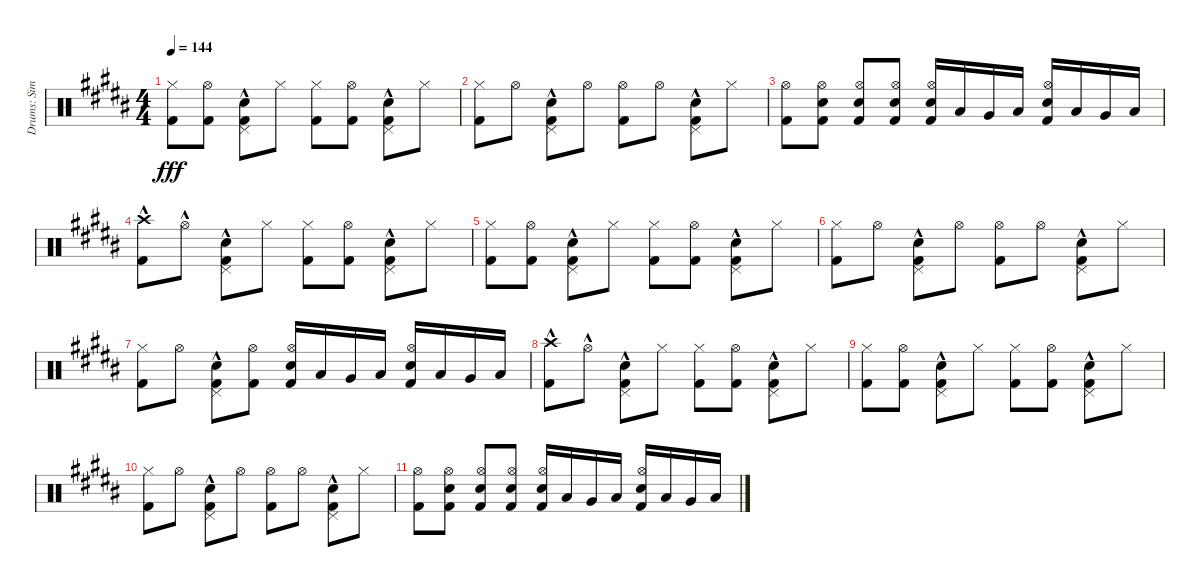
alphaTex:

\track ("Drums: Simon" "Drums: Sim") {instrument percussion}
\staff {score}
\articulation defaults
\ts (4 4)
\tempo 144
\clef neutral
\ks b
("Hi-Hat (closed)" "Kick (hit) 2").8{dy fff} ("Hi-Hat (open)" "Kick (hit) 2").8 ("Pedal Hi-Hat (hit)"{hac} "Snare (hit) 2"{hac} "Kick (hit) 2"{hac}).8 "Hi-Hat (closed)".8 ("Hi-Hat (closed)" "Kick (hit) 2").8 ("Hi-Hat (open)" "Kick (hit) 2").8 ("Pedal Hi-Hat (hit)"{hac} "Snare (hit) 2"{hac} "Kick (hit) 2"{hac}).8 "Hi-Hat (closed)".8 |
("Hi-Hat (closed)" "Kick (hit) 2").8 "Hi-Hat (open)".8 ("Pedal Hi-Hat (hit)"{hac} "Snare (hit) 2"{hac} "Kick (hit) 2"{hac}).8 "Hi-Hat (open)".8 ("Hi-Hat (open)" "Kick (hit) 2").8 "Hi-Hat (open)".8 ("Pedal Hi-Hat (hit)"{hac} "Snare (hit) 2"{hac} "Kick (hit) 2"{hac}).8 "Hi-Hat (closed)".8 |
("Hi-Hat (open)" "Kick (hit) 2").8 ("Hi-Hat (open)" "Snare (hit) 2" "Kick (hit) 2").8 ("Hi-Hat (open)" "Snare (hit) 2" "Kick (hit) 2").8 ("Hi-Hat (open)" "Snare (hit) 2" "Kick (hit) 2").8 ("Hi-Hat (open)" "Snare (hit) 2" "Kick (hit) 2").16 "Low Tom (hit)".16 "Very Low Tom (hit)".16 "Low Floor Tom (hit)".16 ("Hi-Hat (open)" "Snare (hit) 2" "Kick (hit) 2").16 "Low Tom (hit)".16 "Very Low Tom (hit)".16 "Low Floor Tom (hit)".16 |
("Crash high (hit)"{hac} "Kick (hit) 2"{hac}).8 "Hi-Hat (open)"{hac}.8 ("Pedal Hi-Hat (hit)"{hac} "Snare (hit) 2"{hac} "Kick (hit) 2"{hac}).8 "Hi-Hat (closed)".8 ("Hi-Hat (closed)" "Kick (hit) 2").8 ("Hi-Hat (open)" "Kick (hit) 2").8 ("Pedal Hi-Hat (hit)"{hac} "Snare (hit) 2"{hac} "Kick (hit) 2"{hac}).8 "Hi-Hat (closed)".8 |
("Hi-Hat (closed)" "Kick (hit) 2").8 ("Hi-Hat (open)" "Kick (hit) 2").8 ("Pedal Hi-Hat (hit)"{hac} "Snare (hit) 2"{hac} "Kick (hit) 2"{hac}).8 "Hi-Hat (closed)".8 ("Hi-Hat (closed)" "Kick (hit) 2").8 ("Hi-Hat (open)" "Kick (hit) 2").8 ("Pedal Hi-Hat (hit)"{hac} "Snare (hit) 2"{hac} "Kick (hit) 2"{hac}).8 "Hi-Hat (closed)".8 |
("Hi-Hat (closed)" "Kick (hit) 2").8 "Hi-Hat (open)".8 ("Pedal Hi-Hat (hit)"{hac} "Snare (hit) 2"{hac} "Kick (hit) 2"{hac}).8 "Hi-Hat (open)".8 ("Hi-Hat (open)" "Kick (hit) 2").8 "Hi-Hat (open)".8 ("Pedal Hi-Hat (hit)"{hac} "Snare (hit) 2"{hac} "Kick (hit) 2"{hac}).8 "Hi-Hat (closed)".8 |
("Hi-Hat (closed)" "Kick (hit) 2").8 "Hi-Hat (open)".8 ("Pedal Hi-Hat (hit)"{hac} "Snare (hit) 2"{hac} "Kick (hit) 2"{hac}).8 ("Hi-Hat (open)" "Kick (hit) 2").8 ("Hi-Hat (open)" "Snare (hit) 2" "Kick (hit) 2").16 "Low Tom (hit)".16 "Very Low Tom (hit)".16 "Low Floor Tom (hit)".16 ("Hi-Hat (open)" "Snare (hit) 2" "Kick (hit) 2").16 "Low Tom (hit)".16 "Very Low Tom (hit)".16 "Low Floor Tom (hit)".16 |
("Crash high (hit)"{hac} "Kick (hit) 2"{hac}).8 "Hi-Hat (open)"{hac}.8 ("Pedal Hi-Hat (hit)"{hac} "Snare (hit) 2"{hac} "Kick (hit) 2"{hac}).8 "Hi-Hat (closed)".8 ("Hi-Hat (closed)" "Kick (hit) 2").8 ("Hi-Hat (open)" "Kick (hit) 2").8 ("Pedal Hi-Hat (hit)"{hac} "Snare (hit) 2"{hac} "Kick (hit) 2"{hac}).8 "Hi-Hat (closed)".8 |
("Hi-Hat (closed)" "Kick (hit) 2").8 ("Hi-Hat (open)" "Kick (hit) 2").8 ("Pedal Hi-Hat (hit)"{hac} "Snare (hit) 2"{hac} "Kick (hit) 2"{hac}).8 "Hi-Hat (closed)".8 ("Hi-Hat (closed)" "Kick (hit) 2").8 ("Hi-Hat (open)" "Kick (hit) 2").8 ("Pedal Hi-Hat (hit)"{hac} "Snare (hit) 2"{hac} "Kick (hit) 2"{hac}).8 "Hi-Hat (closed)".8 |
("Hi-Hat (closed)" "Kick (hit) 2").8 "Hi-Hat (open)".8 ("Pedal Hi-Hat (hit)"{hac} "Snare (hit) 2"{hac} "Kick (hit) 2"{hac}).8 "Hi-Hat (open)".8 ("Hi-Hat (open)" "Kick (hit) 2").8 "Hi-Hat (open)".8 ("Pedal Hi-Hat (hit)"{hac} "Snare (hit) 2"{hac} "Kick (hit) 2"{hac}).8 "Hi-Hat (closed)".8 |
("Hi-Hat (open)" "Kick (hit) 2").8 ("Hi-Hat (open)" "Snare (hit) 2" "Kick (hit) 2").8 ("Hi-Hat (open)" "Snare (hit) 2" "Kick (hit) 2").8 ("Hi-Hat (open)" "Snare (hit) 2" "Kick (hit) 2").8 ("Hi-Hat (open)" "Snare (hit) 2" "Kick (hit) 2").16 "Low Tom (hit)".16 "Very Low Tom (hit)".16 "Low Floor Tom (hit)".16 ("Hi-Hat (open)" "Snare (hit) 2" "Kick (hit) 2").16 "Low Tom (hit)".16 "Very Low Tom (hit)".16 "Low Floor Tom (hit)".16
